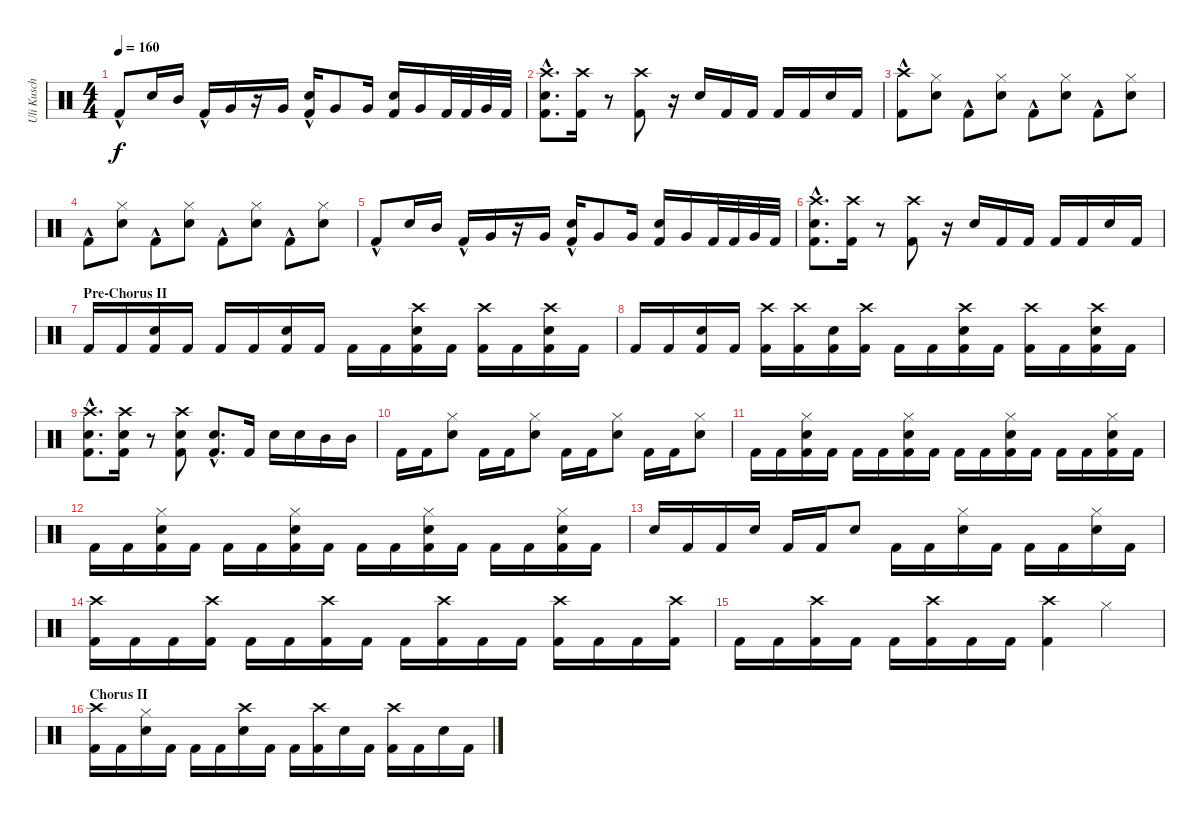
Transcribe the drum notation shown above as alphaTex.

\track ("Uli Kusch" "Uli Kusch") {instrument percussion}
\staff {score}
\articulation defaults
\ts (4 4)
\tempo 160
\clef neutral
\ks c "Kick (hit) 2"{hac}.8{dy f} "Snare (hit) 2".16 "Mid Tom (hit)".16 "Kick (hit) 2"{hac}.16 "Very Low Tom (hit)".16
r.16 "Very Low Tom (hit)".16 ("Kick (hit) 2"{hac} "Snare (hit) 2").16 "Very Low Tom (hit)".8 "Very Low Tom (hit)".16 ("Snare (hit) 2" "Kick (hit) 2").16 "Very Low Tom (hit)".16 "Kick (hit) 2".32 "Kick (hit) 2".32 "Very Low Tom (hit)".32 "Kick (hit) 2".32 |
("Snare (hit) 2"{hac} "Crash high (hit)"{hac} "Kick (hit) 2"{hac}).8{d} ("Kick (hit) 2" "Crash high (hit)").16 r.8 ("Kick (hit) 2" "Crash high (hit)").8 r.16 "Snare (hit) 2".16 "Kick (hit) 2".16 "Kick (hit) 2".16 "Kick (hit) 2".16 "Kick (hit) 2".16 "Snare (hit) 2".16 "Kick (hit) 2".16 |
("Kick (hit) 2"{hac} "Crash high (hit)").8 ("Hi-Hat (closed)" "Snare (hit) 2").8 "Kick (hit) 2"{hac}.8 ("Snare (hit) 2" "Hi-Hat (closed)").8 "Kick (hit) 2"{hac}.8 ("Snare (hit) 2" "Hi-Hat (closed)").8 "Kick (hit) 2"{hac}.8 ("Hi-Hat (closed)" "Snare (hit) 2").8 |
"Kick (hit) 2"{hac}.8 ("Snare (hit) 2" "Hi-Hat (closed)").8 "Kick (hit) 2"{hac}.8 ("Hi-Hat (closed)" "Snare (hit) 2").8 "Kick (hit) 2"{hac}.8 ("Snare (hit) 2" "Hi-Hat (closed)").8 "Kick (hit) 2"{hac}.8 ("Hi-Hat (closed)" "Snare (hit) 2").8 |
"Kick (hit) 2"{hac}.8 "Snare (hit) 2".16 "Mid Tom (hit)".16 "Kick (hit) 2"{hac}.16 "Very Low Tom (hit)".16 r.16 "Very Low Tom (hit)".16 ("Kick (hit) 2"{hac} "Snare (hit) 2").16 "Very Low Tom (hit)".8 "Very Low Tom (hit)".16 ("Snare (hit) 2" "Kick (hit) 2").16 "Very Low Tom (hit)".16 "Kick (hit) 2".32 "Kick (hit) 2".32 "Very Low Tom (hit)".32 "Kick (hit) 2".32 |
("Snare (hit) 2"{hac} "Crash high (hit)"{hac} "Kick (hit) 2"{hac}).8{d} ("Kick (hit) 2" "Crash high (hit)").16 r.8 ("Kick (hit) 2" "Crash high (hit)").8 r.16 "Snare (hit) 2".16 "Kick (hit) 2".16 "Kick (hit) 2".16 "Kick (hit) 2".16 "Kick (hit) 2".16 "Snare (hit) 2".16 "Kick (hit) 2".16 |
\section ("" "Pre-Chorus II")
"Kick (hit) 2".16 "Kick (hit) 2".16 ("Kick (hit) 2" "Snare (hit) 2").16 "Kick (hit) 2".16 "Kick (hit) 2".16 "Kick (hit) 2".16 ("Kick (hit) 2" "Snare (hit) 2").16 "Kick (hit) 2".16 "Kick (hit) 2".16 "Kick (hit) 2".16 ("Kick (hit) 2" "Snare (hit) 2" "Crash high (hit)").16 "Kick (hit) 2".16 ("Kick (hit) 2" "Crash high (hit)").16 "Kick (hit) 2".16 ("Kick (hit) 2" "Crash high (hit)" "Snare (hit) 2").16 "Kick (hit) 2".16 |
"Kick (hit) 2".16 "Kick (hit) 2".16 ("Kick (hit) 2" "Snare (hit) 2").16 "Kick (hit) 2".16 ("Kick (hit) 2" "Crash high (hit)").16 ("Kick (hit) 2" "Crash high (hit)").16 ("Kick (hit) 2" "Snare (hit) 2").16 ("Kick (hit) 2" "Crash high (hit)").16 "Kick (hit) 2".16 "Kick (hit) 2".16 ("Kick (hit) 2" "Snare (hit) 2" "Crash high (hit)").16 "Kick (hit) 2".16 ("Kick (hit) 2" "Crash high (hit)").16 "Kick (hit) 2".16 ("Kick (hit) 2" "Crash high (hit)" "Snare (hit) 2").16 "Kick (hit) 2".16 |
("Kick (hit) 2"{hac} "Snare (hit) 2"{hac} "Crash high (hit)"{hac}).8{d} ("Kick (hit) 2" "Snare (hit) 2" "Crash high (hit)").16 r.8 ("Kick (hit) 2" "Snare (hit) 2" "Crash high (hit)").8 ("Snare (hit) 2"{hac} "Kick (hit) 2").8{d} "Kick (hit) 2".16 "Snare (hit) 2".16 "Snare (hit) 2".16 "Mid Tom (hit)".16 "Mid Tom (hit)".16 |
"Kick (hit) 2".16 "Kick (hit) 2".16 ("Snare (hit) 2" "Hi-Hat (closed)").8 "Kick (hit) 2".16 "Kick (hit) 2".16 ("Hi-Hat (closed)" "Snare (hit) 2").8 "Kick (hit) 2".16 "Kick (hit) 2".16 ("Snare (hit) 2" "Hi-Hat (closed)").8 "Kick (hit) 2".16 "Kick (hit) 2".16 ("Hi-Hat (closed)" "Snare (hit) 2").8 |
"Kick (hit) 2".16 "Kick (hit) 2".16 ("Kick (hit) 2" "Snare (hit) 2" "Hi-Hat (closed)").16 "Kick (hit) 2".16 "Kick (hit) 2".16 "Kick (hit) 2".16 ("Kick (hit) 2" "Hi-Hat (closed)" "Snare (hit) 2").16 "Kick (hit) 2".16 "Kick (hit) 2".16 "Kick (hit) 2".16 ("Kick (hit) 2" "Snare (hit) 2" "Hi-Hat (closed)").16 "Kick (hit) 2".16 "Kick (hit) 2".16 "Kick (hit) 2".16 ("Kick (hit) 2" "Hi-Hat (closed)" "Snare (hit) 2").16 "Kick (hit) 2".16 |
"Kick (hit) 2".16 "Kick (hit) 2".16 ("Kick (hit) 2" "Snare (hit) 2" "Hi-Hat (closed)").16 "Kick (hit) 2".16 "Kick (hit) 2".16 "Kick (hit) 2".16 ("Kick (hit) 2" "Hi-Hat (closed)" "Snare (hit) 2").16 "Kick (hit) 2".16 "Kick (hit) 2".16 "Kick (hit) 2".16 ("Kick (hit) 2" "Snare (hit) 2" "Hi-Hat (closed)").16 "Kick (hit) 2".16 "Kick (hit) 2".16 "Kick (hit) 2".16 ("Kick (hit) 2" "Hi-Hat (closed)" "Snare (hit) 2").16 "Kick (hit) 2".16 |
"Snare (hit) 2".16 "Kick (hit) 2".16 "Kick (hit) 2".16 "Snare (hit) 2".16 "Kick (hit) 2".16 "Kick (hit) 2".16 "Snare (hit) 2".8 "Kick (hit) 2".16 "Kick (hit) 2".16 ("Snare (hit) 2" "Hi-Hat (closed)").16 "Kick (hit) 2".16 "Kick (hit) 2".16 "Kick (hit) 2".16 ("Snare (hit) 2" "Hi-Hat (closed)").16 "Kick (hit) 2".16 |
("Kick (hit) 2" "Crash high (hit)").16 "Kick (hit) 2".16 "Kick (hit) 2".16 ("Kick (hit) 2" "Crash high (hit)").16 "Kick (hit) 2".16 "Kick (hit) 2".16 ("Kick (hit) 2" "Crash high (hit)").16 "Kick (hit) 2".16 "Kick (hit) 2".16 ("Kick (hit) 2" "Crash high (hit)").16 "Kick (hit) 2".16 "Kick (hit) 2".16 ("Kick (hit) 2" "Crash high (hit)").16 "Kick (hit) 2".16 "Kick (hit) 2".16 ("Kick (hit) 2" "Crash high (hit)").16 |
"Kick (hit) 2".16 "Kick (hit) 2".16 ("Kick (hit) 2" "Crash high (hit)").16 "Kick (hit) 2".16 "Kick (hit) 2".16 ("Kick (hit) 2" "Crash high (hit)").16 "Kick (hit) 2".16 "Kick (hit) 2".16 ("Kick (hit) 2" "Crash high (hit)").4 "Hi-Hat (closed)".4 |
\section ("" "Chorus II")
("Kick (hit) 2" "Crash high (hit)").16 "Kick (hit) 2".16 ("Hi-Hat (closed)" "Snare (hit) 2").16 "Kick (hit) 2".16 "Kick (hit) 2".16 "Kick (hit) 2".16 ("Snare (hit) 2" "Crash high (hit)").16 "Kick (hit) 2".16 "Kick (hit) 2".16 ("Kick (hit) 2" "Crash high (hit)").16 "Snare (hit) 2".16 "Kick (hit) 2".16 ("Kick (hit) 2" "Crash high (hit)").16 "Kick (hit) 2".16 "Snare (hit) 2".16 "Kick (hit) 2".16
